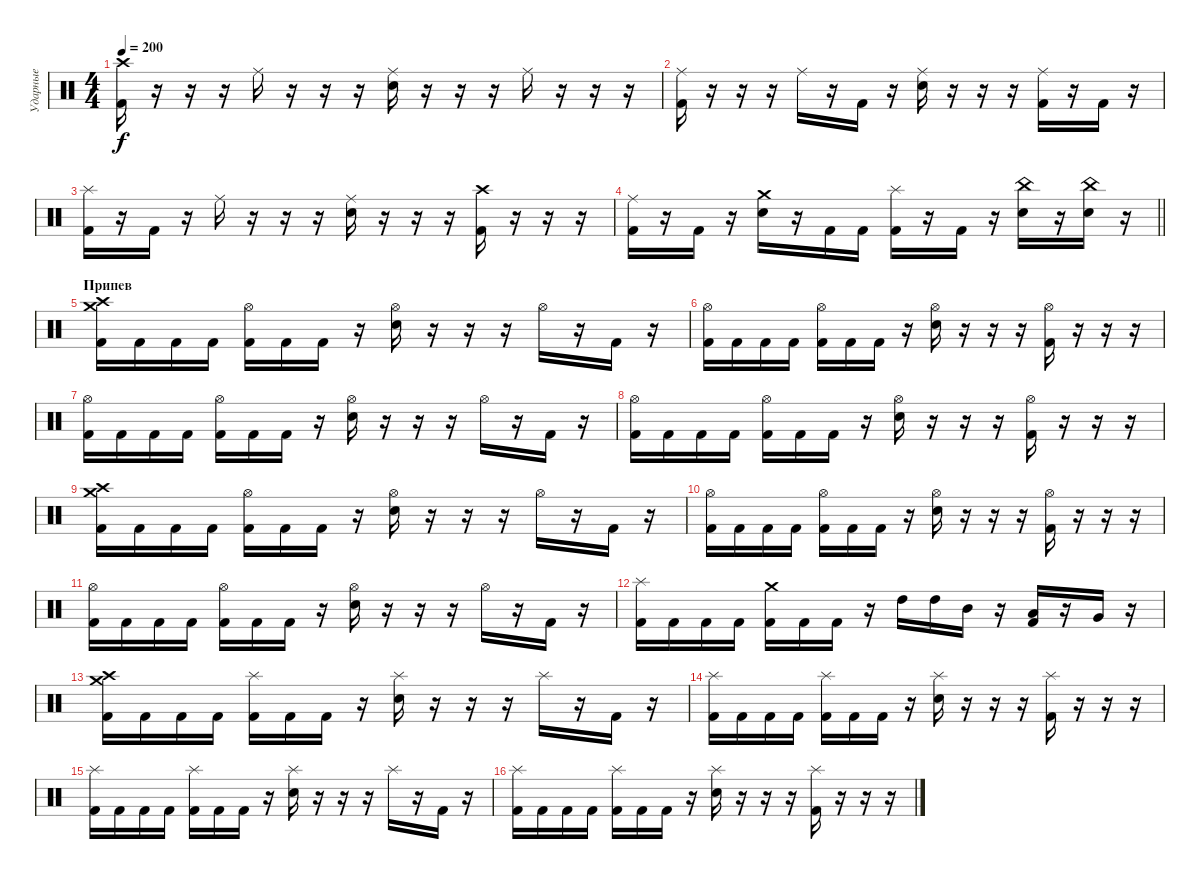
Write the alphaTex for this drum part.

\track ("Ударные" "Ударные") {instrument percussion}
\staff {score}
\articulation defaults
\ts (4 4)
\tempo 200
\clef neutral
\ks c
("Kick (hit) 2" "Crash high (hit)").16{dy f} r.16 r.16 r.16 "Ride (middle)".16 r.16 r.16 r.16 ("Electric Snare (hit)" "Ride (middle)").16 r.16 r.16 r.16 "Ride (middle)".16 r.16 r.16 r.16 |
("Kick (hit) 2" "Ride (middle)").16 r.16 r.16 r.16 "Ride (middle)".16 r.16 "Kick (hit) 2".16 r.16 ("Electric Snare (hit)" "Ride (middle)").16 r.16 r.16 r.16 ("Kick (hit) 2" "Ride (middle)").16 r.16 "Kick (hit) 2".16 r.16 |
("Kick (hit) 2" "Splash (hit)").16 r.16 "Kick (hit) 2".16 r.16 "Ride (middle)".16 r.16 r.16 r.16 ("Electric Snare (hit)" "Ride (middle)").16 r.16 r.16 r.16 ("Kick (hit) 2" "Crash high (hit)").16 r.16 r.16 r.16 |
\barLineRight lightlight
("Kick (hit) 2" "Ride (middle)").16 r.16 "Kick (hit) 2".16 r.16 ("Electric Snare (hit)" "Crash medium (hit)").16 r.16 "Kick (hit) 2".16 "Kick (hit) 2".16 ("Kick (hit) 2" "Splash (hit)").16 r.16 "Kick (hit) 2".16 r.16 ("Electric Snare (hit)" "China (hit)").16 r.16 ("Electric Snare (hit)" "China (hit)").16 r.16 |
\section ("" "Припев")
("Kick (hit) 2" "Crash high (hit)" "Crash medium (hit)").16 "Kick (hit) 2".16 "Kick (hit) 2".16 "Kick (hit) 2".16 ("Kick (hit) 2" "Hi-Hat (open)").16 "Kick (hit) 2".16 "Kick (hit) 2".16 r.16 ("Electric Snare (hit)" "Hi-Hat (open)").16 r.16 r.16 r.16 "Hi-Hat (open)".16 r.16 "Kick (hit) 2".16 r.16 |
("Kick (hit) 2" "Hi-Hat (open)").16 "Kick (hit) 2".16 "Kick (hit) 2".16 "Kick (hit) 2".16 ("Kick (hit) 2" "Hi-Hat (open)").16 "Kick (hit) 2".16 "Kick (hit) 2".16 r.16 ("Electric Snare (hit)" "Hi-Hat (open)").16 r.16 r.16 r.16 ("Kick (hit) 2" "Hi-Hat (open)").16 r.16 r.16 r.16 |
("Kick (hit) 2" "Hi-Hat (open)").16 "Kick (hit) 2".16 "Kick (hit) 2".16 "Kick (hit) 2".16 ("Kick (hit) 2" "Hi-Hat (open)").16 "Kick (hit) 2".16 "Kick (hit) 2".16 r.16 ("Electric Snare (hit)" "Hi-Hat (open)").16 r.16 r.16 r.16 "Hi-Hat (open)".16 r.16 "Kick (hit) 2".16 r.16 |
("Kick (hit) 2" "Hi-Hat (open)").16 "Kick (hit) 2".16 "Kick (hit) 2".16 "Kick (hit) 2".16 ("Kick (hit) 2" "Hi-Hat (open)").16 "Kick (hit) 2".16 "Kick (hit) 2".16 r.16 ("Electric Snare (hit)" "Hi-Hat (open)").16 r.16 r.16 r.16 ("Kick (hit) 2" "Hi-Hat (open)").16 r.16 r.16 r.16 |
("Kick (hit) 2" "Crash high (hit)" "Crash medium (hit)").16 "Kick (hit) 2".16 "Kick (hit) 2".16 "Kick (hit) 2".16 ("Kick (hit) 2" "Hi-Hat (open)").16 "Kick (hit) 2".16 "Kick (hit) 2".16 r.16 ("Electric Snare (hit)" "Hi-Hat (open)").16 r.16 r.16 r.16 "Hi-Hat (open)".16 r.16 "Kick (hit) 2".16 r.16 |
("Kick (hit) 2" "Hi-Hat (open)").16 "Kick (hit) 2".16 "Kick (hit) 2".16 "Kick (hit) 2".16 ("Kick (hit) 2" "Hi-Hat (open)").16 "Kick (hit) 2".16 "Kick (hit) 2".16 r.16 ("Electric Snare (hit)" "Hi-Hat (open)").16 r.16 r.16 r.16 ("Kick (hit) 2" "Hi-Hat (open)").16 r.16 r.16 r.16 |
("Kick (hit) 2" "Hi-Hat (open)").16 "Kick (hit) 2".16 "Kick (hit) 2".16 "Kick (hit) 2".16 ("Kick (hit) 2" "Hi-Hat (open)").16 "Kick (hit) 2".16 "Kick (hit) 2".16 r.16 ("Electric Snare (hit)" "Hi-Hat (open)").16 r.16 r.16 r.16 "Hi-Hat (open)".16 r.16 "Kick (hit) 2".16 r.16 |
("Kick (hit) 2" "Splash (hit)").16 "Kick (hit) 2".16 "Kick (hit) 2".16 "Kick (hit) 2".16 ("Kick (hit) 2" "Crash medium (hit)").16 "Kick (hit) 2".16 "Kick (hit) 2".16 r.16 "High Tom (hit)".16 "High Tom (hit)".16 "Mid Tom (hit)".16 r.16 ("Kick (hit) 2" "Low Tom (hit)").16 r.16 "Very Low Tom (hit)".16 r.16 |
("Kick (hit) 2" "Crash high (hit)" "Crash medium (hit)").16 "Kick (hit) 2".16 "Kick (hit) 2".16 "Kick (hit) 2".16 ("Kick (hit) 2" "Splash (hit)").16 "Kick (hit) 2".16 "Kick (hit) 2".16 r.16 ("Electric Snare (hit)" "Splash (hit)").16 r.16 r.16 r.16 "Splash (hit)".16 r.16 "Kick (hit) 2".16 r.16 |
("Kick (hit) 2" "Splash (hit)").16 "Kick (hit) 2".16 "Kick (hit) 2".16 "Kick (hit) 2".16 ("Kick (hit) 2" "Splash (hit)").16 "Kick (hit) 2".16 "Kick (hit) 2".16 r.16 ("Electric Snare (hit)" "Splash (hit)").16 r.16 r.16 r.16 ("Kick (hit) 2" "Splash (hit)").16 r.16 r.16 r.16 |
("Kick (hit) 2" "Splash (hit)").16 "Kick (hit) 2".16 "Kick (hit) 2".16 "Kick (hit) 2".16 ("Kick (hit) 2" "Splash (hit)").16 "Kick (hit) 2".16 "Kick (hit) 2".16 r.16 ("Electric Snare (hit)" "Splash (hit)").16 r.16 r.16 r.16 "Splash (hit)".16 r.16 "Kick (hit) 2".16 r.16 |
("Kick (hit) 2" "Splash (hit)").16 "Kick (hit) 2".16 "Kick (hit) 2".16 "Kick (hit) 2".16 ("Kick (hit) 2" "Splash (hit)").16 "Kick (hit) 2".16 "Kick (hit) 2".16 r.16 ("Electric Snare (hit)" "Splash (hit)").16 r.16 r.16 r.16 ("Kick (hit) 2" "Splash (hit)").16 r.16 r.16 r.16
